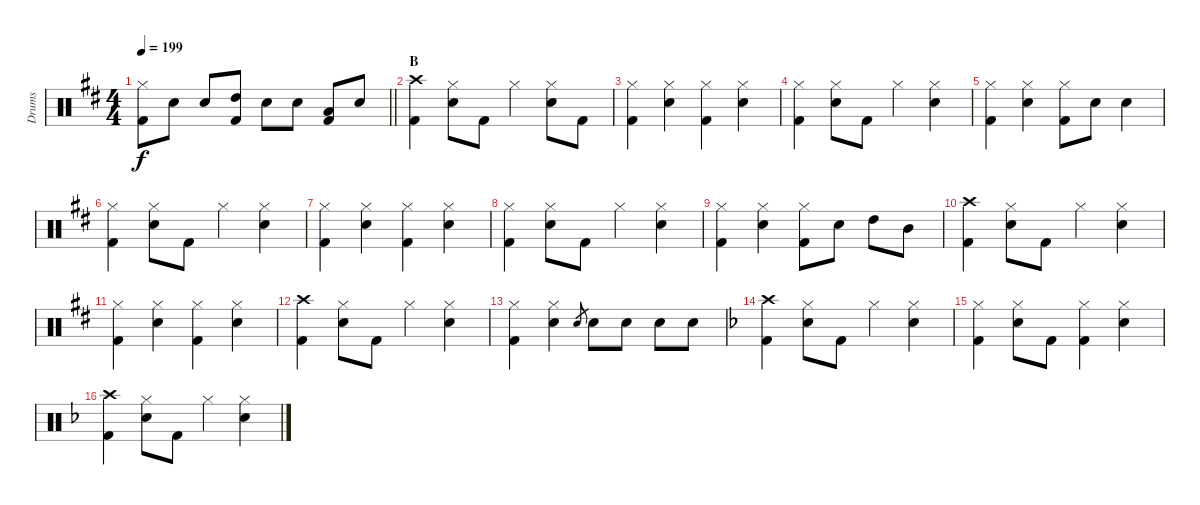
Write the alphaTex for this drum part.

\track ("Drums" "Drums") {instrument percussion}
\staff {score}
\articulation defaults
\ts (4 4)
\tempo 199
\clef neutral
\barLineRight lightlight
\ks d
("Hi-Hat (closed)" "Kick (hit) 2").8{dy f} "Snare (hit) 2".8 "Snare (hit) 2".8 ("High Tom (hit)" "Kick (hit) 2").8 "Snare (hit) 2".8 "Snare (hit) 2".8 ("Low Tom (hit)" "Kick (hit) 2").8 "Snare (hit) 2".8 |
\section ("" "B")
("Crash high (hit)" "Kick (hit) 2").4 ("Hi-Hat (closed)" "Snare (hit) 2").8 "Kick (hit) 2".8 "Hi-Hat (closed)".4 ("Hi-Hat (closed)" "Snare (hit) 2").8 "Kick (hit) 2".8 |
("Hi-Hat (closed)" "Kick (hit) 2").4 ("Hi-Hat (closed)" "Snare (hit) 2").4 ("Hi-Hat (closed)" "Kick (hit) 2").4 ("Hi-Hat (closed)" "Snare (hit) 2").4 |
("Hi-Hat (closed)" "Kick (hit) 2").4 ("Hi-Hat (closed)" "Snare (hit) 2").8 "Kick (hit) 2".8 "Hi-Hat (closed)".4 ("Hi-Hat (closed)" "Snare (hit) 2").4 |
("Hi-Hat (closed)" "Kick (hit) 2").4 ("Hi-Hat (closed)" "Snare (hit) 2").4 ("Hi-Hat (closed)" "Kick (hit) 2").8 "Snare (hit) 2".8 "Snare (hit) 2".4 |
("Hi-Hat (closed)" "Kick (hit) 2").4 ("Hi-Hat (closed)" "Snare (hit) 2").8 "Kick (hit) 2".8 "Hi-Hat (closed)".4 ("Hi-Hat (closed)" "Snare (hit) 2").4 |
("Hi-Hat (closed)" "Kick (hit) 2").4 ("Hi-Hat (closed)" "Snare (hit) 2").4 ("Hi-Hat (closed)" "Kick (hit) 2").4 ("Hi-Hat (closed)" "Snare (hit) 2").4 |
("Hi-Hat (closed)" "Kick (hit) 2").4 ("Hi-Hat (closed)" "Snare (hit) 2").8 "Kick (hit) 2".8 "Hi-Hat (closed)".4 ("Hi-Hat (closed)" "Snare (hit) 2").4 |
("Hi-Hat (closed)" "Kick (hit) 2").4 ("Hi-Hat (closed)" "Snare (hit) 2").4 ("Hi-Hat (closed)" "Kick (hit) 2").8 "Snare (hit) 2".8 "High Tom (hit)".8 "Mid Tom (hit)".8 |
("Crash high (hit)" "Kick (hit) 2").4 ("Hi-Hat (closed)" "Snare (hit) 2").8 "Kick (hit) 2".8 "Hi-Hat (closed)".4 ("Hi-Hat (closed)" "Snare (hit) 2").4 |
("Hi-Hat (closed)" "Kick (hit) 2").4 ("Hi-Hat (closed)" "Snare (hit) 2").4 ("Hi-Hat (closed)" "Kick (hit) 2").4 ("Hi-Hat (closed)" "Snare (hit) 2").4 |
("Crash high (hit)" "Kick (hit) 2").4 ("Hi-Hat (closed)" "Snare (hit) 2").8 "Kick (hit) 2".8 "Hi-Hat (closed)".4 ("Hi-Hat (closed)" "Snare (hit) 2").4 |
("Hi-Hat (closed)" "Kick (hit) 2").4 ("Hi-Hat (closed)" "Snare (hit) 2").4 "Snare (hit) 2".8{gr} "Snare (hit) 2".8 "Snare (hit) 2".8 "Snare (hit) 2".8 "Snare (hit) 2".8 |
\ks f
("Crash high (hit)" "Kick (hit) 2").4 ("Hi-Hat (closed)" "Snare (hit) 2").8 "Kick (hit) 2".8 "Hi-Hat (closed)".4 ("Hi-Hat (closed)" "Snare (hit) 2").4 |
("Hi-Hat (closed)" "Kick (hit) 2").4 ("Hi-Hat (closed)" "Snare (hit) 2").8 "Kick (hit) 2".8 ("Hi-Hat (closed)" "Kick (hit) 2").4 ("Hi-Hat (closed)" "Snare (hit) 2").4 |
("Crash high (hit)" "Kick (hit) 2").4 ("Hi-Hat (closed)" "Snare (hit) 2").8 "Kick (hit) 2".8 "Hi-Hat (closed)".4 ("Hi-Hat (closed)" "Snare (hit) 2").4
